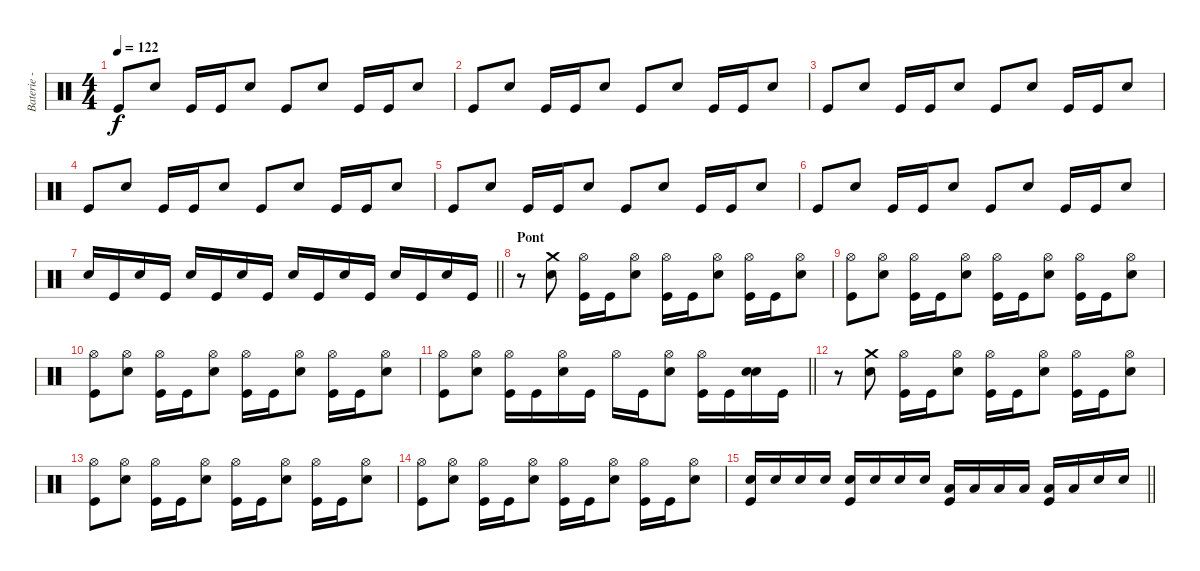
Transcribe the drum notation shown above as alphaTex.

\track ("Baterie - Alex" "Baterie - ") {instrument percussion}
\staff {score}
\articulation defaults
\ts (4 4)
\tempo 122
\clef neutral
\ks c "Kick (hit)".8{dy f} "Electric Snare (hit)".8 "Kick (hit)".16 "Kick (hit)".16 "Electric Snare (hit)".8 "Kick (hit)".8 "Electric Snare (hit)".8 "Kick (hit)".16 "Kick (hit)".16 "Electric Snare (hit)".8
|
"Kick (hit)".8 "Electric Snare (hit)".8 "Kick (hit)".16 "Kick (hit)".16 "Electric Snare (hit)".8 "Kick (hit)".8 "Electric Snare (hit)".8 "Kick (hit)".16 "Kick (hit)".16 "Electric Snare (hit)".8 |
"Kick (hit)".8 "Electric Snare (hit)".8 "Kick (hit)".16 "Kick (hit)".16 "Electric Snare (hit)".8 "Kick (hit)".8 "Electric Snare (hit)".8 "Kick (hit)".16 "Kick (hit)".16 "Electric Snare (hit)".8 |
"Kick (hit)".8 "Electric Snare (hit)".8 "Kick (hit)".16 "Kick (hit)".16 "Electric Snare (hit)".8 "Kick (hit)".8 "Electric Snare (hit)".8 "Kick (hit)".16 "Kick (hit)".16 "Electric Snare (hit)".8 |
"Kick (hit)".8 "Electric Snare (hit)".8 "Kick (hit)".16 "Kick (hit)".16 "Electric Snare (hit)".8 "Kick (hit)".8 "Electric Snare (hit)".8 "Kick (hit)".16 "Kick (hit)".16 "Electric Snare (hit)".8 |
"Kick (hit)".8 "Electric Snare (hit)".8 "Kick (hit)".16 "Kick (hit)".16 "Electric Snare (hit)".8 "Kick (hit)".8 "Electric Snare (hit)".8 "Kick (hit)".16 "Kick (hit)".16 "Electric Snare (hit)".8 |
\barLineRight lightlight "Electric Snare (hit)".16 "Kick (hit)".16 "Electric Snare (hit)".16 "Kick (hit)".16 "Electric Snare (hit)".16 "Kick (hit)".16 "Electric Snare (hit)".16 "Kick (hit)".16 "Electric Snare (hit)".16 "Kick (hit)".16 "Electric Snare (hit)".16 "Kick (hit)".16 "Electric Snare (hit)".16 "Kick (hit)".16 "Electric Snare (hit)".16 "Kick (hit)".16
|
\section ("" "Pont")
r.8 ("Crash medium (hit)" "Electric Snare (hit)").8 ("Hi-Hat (open)" "Kick (hit)").16 "Kick (hit)".16 ("Hi-Hat (open)" "Electric Snare (hit)").8 ("Hi-Hat (open)" "Kick (hit)").16 "Kick (hit)".16 ("Hi-Hat (open)" "Electric Snare (hit)").8 ("Hi-Hat (open)" "Kick (hit)").16 "Kick (hit)".16 ("Hi-Hat (open)" "Electric Snare (hit)").8 |
("Hi-Hat (open)" "Kick (hit)").8 ("Hi-Hat (open)" "Electric Snare (hit)").8 ("Hi-Hat (open)" "Kick (hit)").16 "Kick (hit)".16 ("Hi-Hat (open)" "Electric Snare (hit)").8 ("Hi-Hat (open)" "Kick (hit)").16 "Kick (hit)".16 ("Hi-Hat (open)" "Electric Snare (hit)").8 ("Hi-Hat (open)" "Kick (hit)").16 "Kick (hit)".16 ("Hi-Hat (open)" "Electric Snare (hit)").8 |
("Hi-Hat (open)" "Kick (hit)").8 ("Hi-Hat (open)" "Electric Snare (hit)").8 ("Hi-Hat (open)" "Kick (hit)").16 "Kick (hit)".16 ("Hi-Hat (open)" "Electric Snare (hit)").8 ("Hi-Hat (open)" "Kick (hit)").16 "Kick (hit)".16 ("Hi-Hat (open)" "Electric Snare (hit)").8 ("Hi-Hat (open)" "Kick (hit)").16 "Kick (hit)".16 ("Hi-Hat (open)" "Electric Snare (hit)").8 |
\barLineRight lightlight
("Hi-Hat (open)" "Kick (hit)").8 ("Hi-Hat (open)" "Electric Snare (hit)").8 ("Hi-Hat (open)" "Kick (hit)").16 "Kick (hit)".16 ("Hi-Hat (open)" "Electric Snare (hit)").16 "Kick (hit)".16 "Hi-Hat (open)".16 "Kick (hit)".16 ("Hi-Hat (open)" "Electric Snare (hit)").8 ("Hi-Hat (open)" "Kick (hit)").16 "Kick (hit)".16 ("Electric Snare (hit)" "Electric Snare (hit)").16 "Kick (hit)".16 |
r.8 ("Crash medium (hit)" "Electric Snare (hit)").8 ("Hi-Hat (open)" "Kick (hit)").16 "Kick (hit)".16 ("Hi-Hat (open)" "Electric Snare (hit)").8 ("Hi-Hat (open)" "Kick (hit)").16 "Kick (hit)".16 ("Hi-Hat (open)" "Electric Snare (hit)").8 ("Hi-Hat (open)" "Kick (hit)").16 "Kick (hit)".16 ("Hi-Hat (open)" "Electric Snare (hit)").8 |
("Hi-Hat (open)" "Kick (hit)").8 ("Hi-Hat (open)" "Electric Snare (hit)").8 ("Hi-Hat (open)" "Kick (hit)").16 "Kick (hit)".16 ("Hi-Hat (open)" "Electric Snare (hit)").8 ("Hi-Hat (open)" "Kick (hit)").16 "Kick (hit)".16 ("Hi-Hat (open)" "Electric Snare (hit)").8 ("Hi-Hat (open)" "Kick (hit)").16 "Kick (hit)".16 ("Hi-Hat (open)" "Electric Snare (hit)").8 |
("Hi-Hat (open)" "Kick (hit)").8 ("Hi-Hat (open)" "Electric Snare (hit)").8 ("Hi-Hat (open)" "Kick (hit)").16 "Kick (hit)".16 ("Hi-Hat (open)" "Electric Snare (hit)").8 ("Hi-Hat (open)" "Kick (hit)").16 "Kick (hit)".16 ("Hi-Hat (open)" "Electric Snare (hit)").8 ("Hi-Hat (open)" "Kick (hit)").16 "Kick (hit)".16 ("Hi-Hat (open)" "Electric Snare (hit)").8 |
\barLineRight lightlight
("Electric Snare (hit)" "Kick (hit)").16 "Electric Snare (hit)".16 "Electric Snare (hit)".16 "Electric Snare (hit)".16 ("Electric Snare (hit)" "Kick (hit)").16 "Electric Snare (hit)".16 "Electric Snare (hit)".16 "Electric Snare (hit)".16 ("Low Tom (hit)" "Kick (hit)").16 "Low Tom (hit)".16 "Low Tom (hit)".16 "Low Tom (hit)".16 ("Low Tom (hit)" "Kick (hit)").16 "Low Tom (hit)".16 "Electric Snare (hit)".16 "Electric Snare (hit)".16
